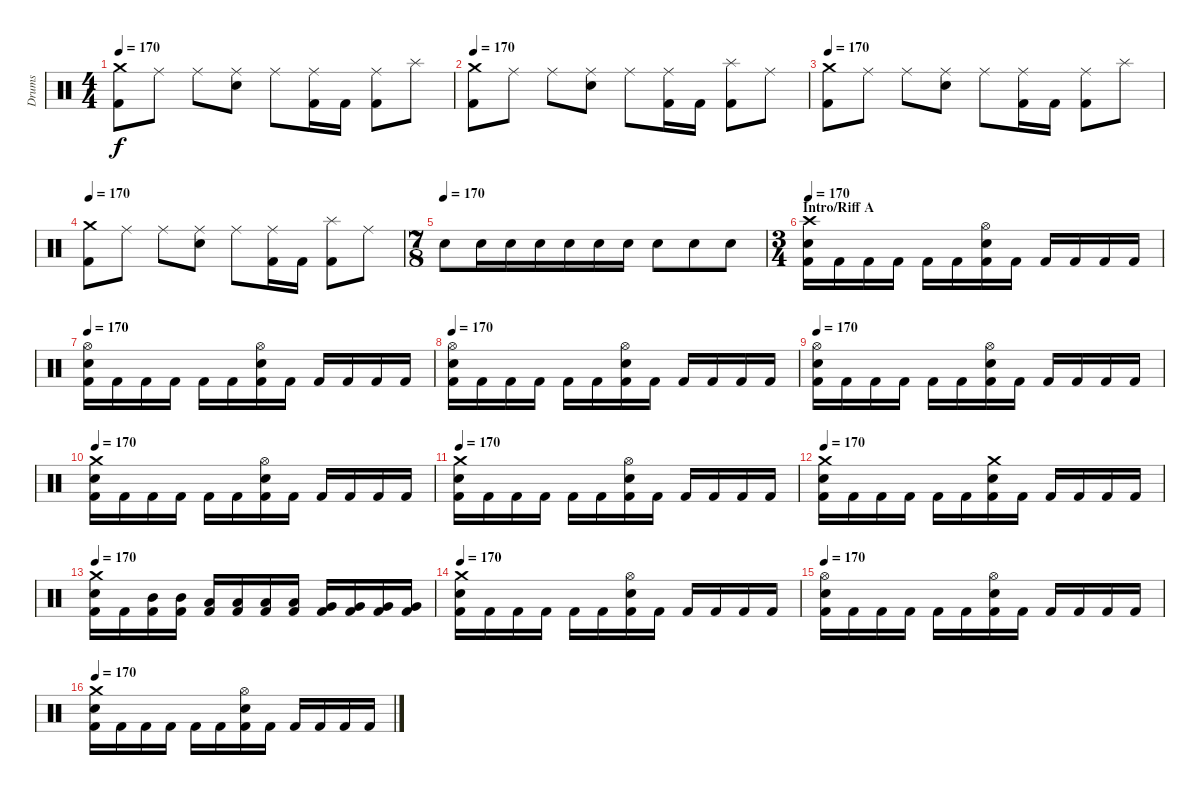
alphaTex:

\track ("Drums" "Drums") {instrument percussion}
\staff {score}
\articulation defaults
\ts (4 4)
\tempo 170
\clef neutral
\ks c
("Crash medium (hit)" "Kick (hit) 2").8{dy f} "Ride (middle)".8 "Ride (middle)".8 ("Ride (middle)" "Electric Snare (hit)").8 "Ride (middle)".8 ("Ride (middle)" "Kick (hit) 2").16 "Kick (hit) 2".16 ("Ride (middle)" "Kick (hit) 2").8 "Splash (hit)".8 |
\tempo 170
("Crash medium (hit)" "Kick (hit) 2").8 "Ride (middle)".8 "Ride (middle)".8 ("Ride (middle)" "Electric Snare (hit)").8 "Ride (middle)".8 ("Ride (middle)" "Kick (hit) 2").16 "Kick (hit) 2".16 ("Splash (hit)" "Kick (hit) 2").8 "Ride (middle)".8 |
\tempo 170
("Crash medium (hit)" "Kick (hit) 2").8 "Ride (middle)".8 "Ride (middle)".8 ("Ride (middle)" "Electric Snare (hit)").8 "Ride (middle)".8 ("Ride (middle)" "Kick (hit) 2").16 "Kick (hit) 2".16 ("Ride (middle)" "Kick (hit) 2").8 "Splash (hit)".8 |
\tempo 170
("Crash medium (hit)" "Kick (hit) 2").8 "Ride (middle)".8 "Ride (middle)".8 ("Ride (middle)" "Electric Snare (hit)").8 "Ride (middle)".8 ("Ride (middle)" "Kick (hit) 2").16 "Kick (hit) 2".16 ("Splash (hit)" "Kick (hit) 2").8 "Ride (middle)".8 |
\ts (7 8)
\tempo (170)
"Electric Snare (hit)".8 "Electric Snare (hit)".16 "Electric Snare (hit)".16 "Electric Snare (hit)".16 "Electric Snare (hit)".16 "Electric Snare (hit)".16 "Electric Snare (hit)".16 "Electric Snare (hit)".8 "Electric Snare (hit)".8 "Electric Snare (hit)".8 |
\ts (3 4)
\section ("" "Intro/Riff A")
\tempo 170
("Crash high (hit)" "Electric Snare (hit)" "Kick (hit) 2").16 "Kick (hit) 2".16 "Kick (hit) 2".16 "Kick (hit) 2".16 "Kick (hit) 2".16 "Kick (hit) 2".16 ("Hi-Hat (open)" "Electric Snare (hit)" "Kick (hit) 2").16 "Kick (hit) 2".16 "Kick (hit) 2".16 "Kick (hit) 2".16 "Kick (hit) 2".16 "Kick (hit) 2".16 |
\tempo 170
("Hi-Hat (open)" "Electric Snare (hit)" "Kick (hit) 2").16 "Kick (hit) 2".16 "Kick (hit) 2".16 "Kick (hit) 2".16 "Kick (hit) 2".16 "Kick (hit) 2".16 ("Hi-Hat (open)" "Electric Snare (hit)" "Kick (hit) 2").16 "Kick (hit) 2".16 "Kick (hit) 2".16 "Kick (hit) 2".16 "Kick (hit) 2".16 "Kick (hit) 2".16 |
\tempo 170
("Hi-Hat (open)" "Electric Snare (hit)" "Kick (hit) 2").16 "Kick (hit) 2".16 "Kick (hit) 2".16 "Kick (hit) 2".16 "Kick (hit) 2".16 "Kick (hit) 2".16 ("Hi-Hat (open)" "Electric Snare (hit)" "Kick (hit) 2").16 "Kick (hit) 2".16 "Kick (hit) 2".16 "Kick (hit) 2".16 "Kick (hit) 2".16 "Kick (hit) 2".16 |
\tempo 170
("Hi-Hat (open)" "Electric Snare (hit)" "Kick (hit) 2").16 "Kick (hit) 2".16 "Kick (hit) 2".16 "Kick (hit) 2".16 "Kick (hit) 2".16 "Kick (hit) 2".16 ("Hi-Hat (open)" "Electric Snare (hit)" "Kick (hit) 2").16 "Kick (hit) 2".16 "Kick (hit) 2".16 "Kick (hit) 2".16 "Kick (hit) 2".16 "Kick (hit) 2".16 |
\tempo 170
("Crash medium (hit)" "Electric Snare (hit)" "Kick (hit) 2").16 "Kick (hit) 2".16 "Kick (hit) 2".16 "Kick (hit) 2".16 "Kick (hit) 2".16 "Kick (hit) 2".16 ("Hi-Hat (open)" "Electric Snare (hit)" "Kick (hit) 2").16 "Kick (hit) 2".16 "Kick (hit) 2".16 "Kick (hit) 2".16 "Kick (hit) 2".16 "Kick (hit) 2".16 |
\tempo 170
("Crash medium (hit)" "Electric Snare (hit)" "Kick (hit) 2").16 "Kick (hit) 2".16 "Kick (hit) 2".16 "Kick (hit) 2".16 "Kick (hit) 2".16 "Kick (hit) 2".16 ("Hi-Hat (open)" "Electric Snare (hit)" "Kick (hit) 2").16 "Kick (hit) 2".16 "Kick (hit) 2".16 "Kick (hit) 2".16 "Kick (hit) 2".16 "Kick (hit) 2".16 |
\tempo 170
("Crash medium (hit)" "Electric Snare (hit)" "Kick (hit) 2").16 "Kick (hit) 2".16 "Kick (hit) 2".16 "Kick (hit) 2".16 "Kick (hit) 2".16 "Kick (hit) 2".16 ("Crash medium (hit)" "Electric Snare (hit)" "Kick (hit) 2").16 "Kick (hit) 2".16 "Kick (hit) 2".16 "Kick (hit) 2".16 "Kick (hit) 2".16 "Kick (hit) 2".16 |
\tempo 170
("Crash medium (hit)" "Electric Snare (hit)" "Kick (hit) 2").16 "Kick (hit) 2".16 ("Mid Tom (hit)" "Kick (hit) 2").16 ("Mid Tom (hit)" "Kick (hit) 2").16 ("Low Tom (hit)" "Kick (hit) 2").16 ("Low Tom (hit)" "Kick (hit) 2").16 ("Low Tom (hit)" "Kick (hit) 2").16 ("Low Tom (hit)" "Kick (hit) 2").16 ("Very Low Tom (hit)" "Kick (hit) 2").16 ("Very Low Tom (hit)" "Kick (hit) 2").16 ("Very Low Tom (hit)" "Kick (hit) 2").16 ("Very Low Tom (hit)" "Kick (hit) 2").16 |
\tempo 170
("Crash medium (hit)" "Electric Snare (hit)" "Kick (hit) 2").16 "Kick (hit) 2".16 "Kick (hit) 2".16 "Kick (hit) 2".16 "Kick (hit) 2".16 "Kick (hit) 2".16 ("Hi-Hat (open)" "Electric Snare (hit)" "Kick (hit) 2").16 "Kick (hit) 2".16 "Kick (hit) 2".16 "Kick (hit) 2".16 "Kick (hit) 2".16 "Kick (hit) 2".16 |
\tempo 170
("Hi-Hat (open)" "Electric Snare (hit)" "Kick (hit) 2").16 "Kick (hit) 2".16 "Kick (hit) 2".16 "Kick (hit) 2".16 "Kick (hit) 2".16 "Kick (hit) 2".16 ("Hi-Hat (open)" "Electric Snare (hit)" "Kick (hit) 2").16 "Kick (hit) 2".16 "Kick (hit) 2".16 "Kick (hit) 2".16 "Kick (hit) 2".16 "Kick (hit) 2".16 |
\tempo 170
("Crash medium (hit)" "Electric Snare (hit)" "Kick (hit) 2").16 "Kick (hit) 2".16 "Kick (hit) 2".16 "Kick (hit) 2".16 "Kick (hit) 2".16 "Kick (hit) 2".16 ("Hi-Hat (open)" "Electric Snare (hit)" "Kick (hit) 2").16 "Kick (hit) 2".16 "Kick (hit) 2".16 "Kick (hit) 2".16 "Kick (hit) 2".16 "Kick (hit) 2".16
